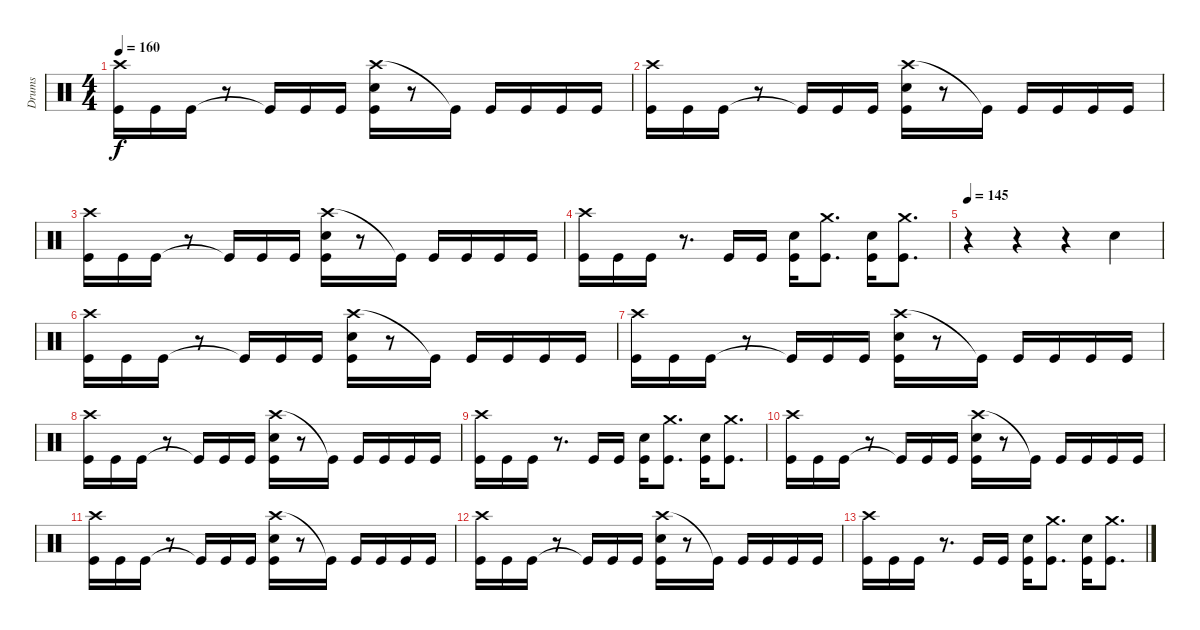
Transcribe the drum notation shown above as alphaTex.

\track ("Drums" "Drums") {instrument percussion}
\staff {score}
\articulation defaults
\ts (4 4)
\tempo 160
\clef neutral
\ks c
("Crash high (hit)" "Kick (hit)").16{dy f} "Kick (hit)".16 "Kick (hit)".16 r.8 "Kick (hit)"{t}.16 "Kick (hit)".16 "Kick (hit)".16 ("Crash high (hit)" "Snare (hit) 2" "Kick (hit)").16 r.8 "Kick (hit)"{t}.16 "Kick (hit)".16 "Kick (hit)".16 "Kick (hit)".16 "Kick (hit)".16 |
("Crash high (hit)" "Kick (hit)").16 "Kick (hit)".16 "Kick (hit)".16 r.8 "Kick (hit)"{t}.16 "Kick (hit)".16 "Kick (hit)".16 ("Crash high (hit)" "Snare (hit) 2" "Kick (hit)").16 r.8 "Kick (hit)"{t}.16 "Kick (hit)".16 "Kick (hit)".16 "Kick (hit)".16 "Kick (hit)".16 |
("Crash high (hit)" "Kick (hit)").16 "Kick (hit)".16 "Kick (hit)".16 r.8 "Kick (hit)"{t}.16 "Kick (hit)".16 "Kick (hit)".16 ("Crash high (hit)" "Snare (hit) 2" "Kick (hit)").16 r.8 "Kick (hit)"{t}.16 "Kick (hit)".16 "Kick (hit)".16 "Kick (hit)".16 "Kick (hit)".16 |
("Crash high (hit)" "Kick (hit)").16 "Kick (hit)".16 "Kick (hit)".16 r.8{d} "Kick (hit)".16 "Kick (hit)".16 ("Snare (hit) 2" "Kick (hit)").16 ("Crash medium (hit)" "Kick (hit)").8{d} ("Snare (hit) 2" "Kick (hit)").16 ("Crash medium (hit)" "Kick (hit)").8{d} |
\tempo 145
r.4 r.4 r.4 "Snare (hit) 2".4 |
("Crash high (hit)" "Kick (hit)").16 "Kick (hit)".16 "Kick (hit)".16 r.8 "Kick (hit)"{t}.16 "Kick (hit)".16 "Kick (hit)".16 ("Crash high (hit)" "Snare (hit) 2" "Kick (hit)").16 r.8 "Kick (hit)"{t}.16 "Kick (hit)".16 "Kick (hit)".16 "Kick (hit)".16 "Kick (hit)".16 |
("Crash high (hit)" "Kick (hit)").16 "Kick (hit)".16 "Kick (hit)".16 r.8 "Kick (hit)"{t}.16 "Kick (hit)".16 "Kick (hit)".16 ("Crash high (hit)" "Snare (hit) 2" "Kick (hit)").16 r.8 "Kick (hit)"{t}.16 "Kick (hit)".16 "Kick (hit)".16 "Kick (hit)".16 "Kick (hit)".16 |
("Crash high (hit)" "Kick (hit)").16 "Kick (hit)".16 "Kick (hit)".16 r.8 "Kick (hit)"{t}.16 "Kick (hit)".16 "Kick (hit)".16 ("Crash high (hit)" "Snare (hit) 2" "Kick (hit)").16 r.8 "Kick (hit)"{t}.16 "Kick (hit)".16 "Kick (hit)".16 "Kick (hit)".16 "Kick (hit)".16 |
("Crash high (hit)" "Kick (hit)").16 "Kick (hit)".16 "Kick (hit)".16 r.8{d} "Kick (hit)".16 "Kick (hit)".16 ("Snare (hit) 2" "Kick (hit)").16 ("Crash medium (hit)" "Kick (hit)").8{d} ("Snare (hit) 2" "Kick (hit)").16 ("Crash medium (hit)" "Kick (hit)").8{d} |
("Crash high (hit)" "Kick (hit)").16 "Kick (hit)".16 "Kick (hit)".16 r.8 "Kick (hit)"{t}.16 "Kick (hit)".16 "Kick (hit)".16 ("Crash high (hit)" "Snare (hit) 2" "Kick (hit)").16 r.8 "Kick (hit)"{t}.16 "Kick (hit)".16 "Kick (hit)".16 "Kick (hit)".16 "Kick (hit)".16 |
("Crash high (hit)" "Kick (hit)").16 "Kick (hit)".16 "Kick (hit)".16 r.8 "Kick (hit)"{t}.16 "Kick (hit)".16 "Kick (hit)".16 ("Crash high (hit)" "Snare (hit) 2" "Kick (hit)").16 r.8 "Kick (hit)"{t}.16 "Kick (hit)".16 "Kick (hit)".16 "Kick (hit)".16 "Kick (hit)".16 |
("Crash high (hit)" "Kick (hit)").16 "Kick (hit)".16 "Kick (hit)".16 r.8 "Kick (hit)"{t}.16 "Kick (hit)".16 "Kick (hit)".16 ("Crash high (hit)" "Snare (hit) 2" "Kick (hit)").16 r.8 "Kick (hit)"{t}.16 "Kick (hit)".16 "Kick (hit)".16 "Kick (hit)".16 "Kick (hit)".16 |
("Crash high (hit)" "Kick (hit)").16 "Kick (hit)".16 "Kick (hit)".16 r.8{d} "Kick (hit)".16 "Kick (hit)".16 ("Snare (hit) 2" "Kick (hit)").16 ("Crash medium (hit)" "Kick (hit)").8{d} ("Snare (hit) 2" "Kick (hit)").16 ("Crash medium (hit)" "Kick (hit)").8{d}
